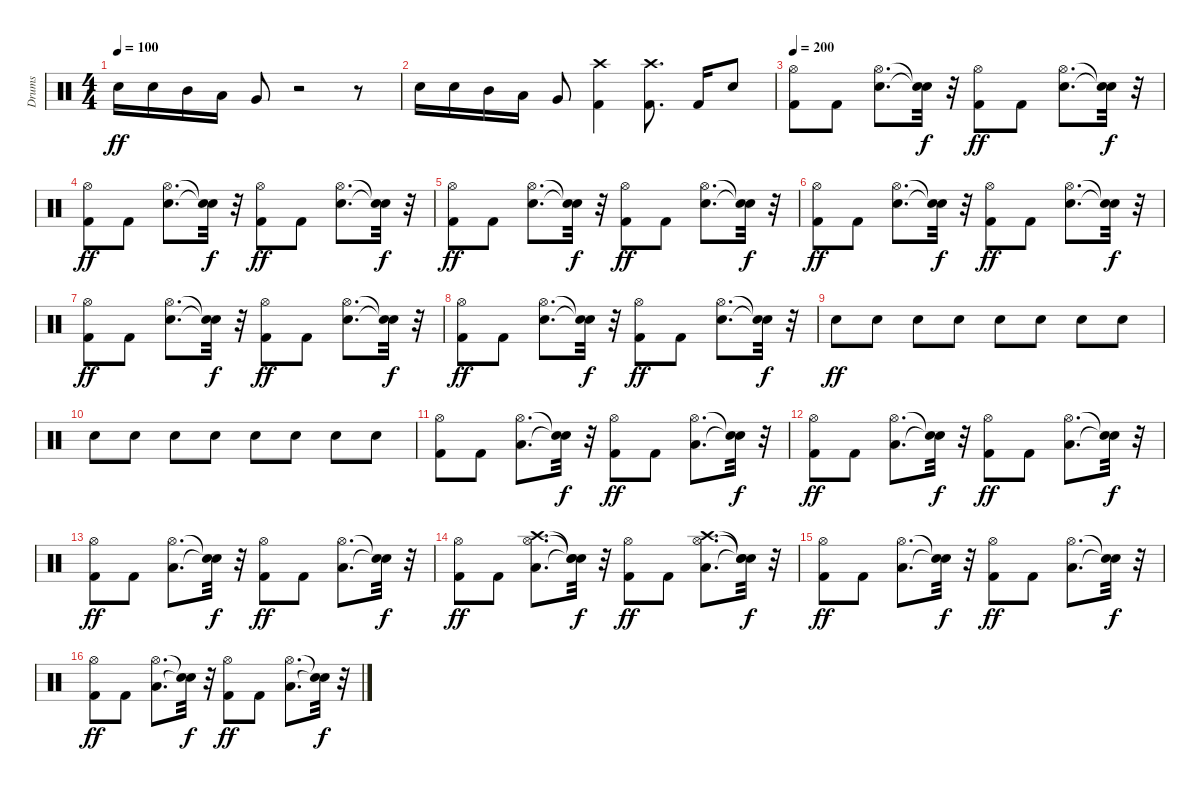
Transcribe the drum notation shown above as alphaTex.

\track ("Drums" "Drums") {instrument percussion}
\staff {score}
\articulation defaults
\ts (4 4)
\tempo 100
\clef neutral
\ks c "Snare (hit) 2".16{dy ff} "Snare (hit) 2".16 "Mid Tom (hit)".16 "Low Tom (hit)".16 "Very Low Tom (hit)".8
r.2 r.8 |
"Snare (hit) 2".16 "Snare (hit) 2".16 "Mid Tom (hit)".16 "Low Tom (hit)".16 "Very Low Tom (hit)".8 ("Kick (hit) 2" "Crash high (hit)").4 ("Kick (hit) 2" "Crash high (hit)").8{d} "Kick (hit) 2".16 "Snare (hit) 2".8 |
\tempo 200
("Kick (hit) 2" "Hi-Hat (open)").8 "Kick (hit) 2".8 ("Snare (hit) 2" "Hi-Hat (open)").8{d} ("Snare (hit)"{t} "Snare (hit)"{t}).32{dy f} r.32 ("Kick (hit) 2" "Hi-Hat (open)").8{dy ff} "Kick (hit) 2".8 ("Snare (hit) 2" "Hi-Hat (open)").8{d} ("Snare (hit)"{t} "Snare (hit)"{t}).32{dy f} r.32 |
("Kick (hit) 2" "Hi-Hat (open)").8{dy ff} "Kick (hit) 2".8 ("Snare (hit) 2" "Hi-Hat (open)").8{d} ("Snare (hit)"{t} "Snare (hit)"{t}).32{dy f} r.32 ("Kick (hit) 2" "Hi-Hat (open)").8{dy ff} "Kick (hit) 2".8 ("Snare (hit) 2" "Hi-Hat (open)").8{d} ("Snare (hit)"{t} "Snare (hit)"{t}).32{dy f} r.32 |
("Kick (hit) 2" "Hi-Hat (open)").8{dy ff} "Kick (hit) 2".8 ("Snare (hit) 2" "Hi-Hat (open)").8{d} ("Snare (hit)"{t} "Snare (hit)"{t}).32{dy f} r.32 ("Kick (hit) 2" "Hi-Hat (open)").8{dy ff} "Kick (hit) 2".8 ("Snare (hit) 2" "Hi-Hat (open)").8{d} ("Snare (hit)"{t} "Snare (hit)"{t}).32{dy f} r.32 |
("Kick (hit) 2" "Hi-Hat (open)").8{dy ff} "Kick (hit) 2".8 ("Snare (hit) 2" "Hi-Hat (open)").8{d} ("Snare (hit)"{t} "Snare (hit)"{t}).32{dy f} r.32 ("Kick (hit) 2" "Hi-Hat (open)").8{dy ff} "Kick (hit) 2".8 ("Snare (hit) 2" "Hi-Hat (open)").8{d} ("Snare (hit)"{t} "Snare (hit)"{t}).32{dy f} r.32 |
("Kick (hit) 2" "Hi-Hat (open)").8{dy ff} "Kick (hit) 2".8 ("Snare (hit) 2" "Hi-Hat (open)").8{d} ("Snare (hit)"{t} "Snare (hit)"{t}).32{dy f} r.32 ("Kick (hit) 2" "Hi-Hat (open)").8{dy ff} "Kick (hit) 2".8 ("Snare (hit) 2" "Hi-Hat (open)").8{d} ("Snare (hit)"{t} "Snare (hit)"{t}).32{dy f} r.32 |
("Kick (hit) 2" "Hi-Hat (open)").8{dy ff} "Kick (hit) 2".8 ("Snare (hit) 2" "Hi-Hat (open)").8{d} ("Snare (hit)"{t} "Snare (hit)"{t}).32{dy f} r.32 ("Kick (hit) 2" "Hi-Hat (open)").8{dy ff} "Kick (hit) 2".8 ("Snare (hit) 2" "Hi-Hat (open)").8{d} ("Snare (hit)"{t} "Snare (hit)"{t}).32{dy f} r.32 |
"Snare (hit) 2".8{dy ff} "Snare (hit) 2".8 "Snare (hit) 2".8 "Snare (hit) 2".8 "Snare (hit) 2".8 "Snare (hit) 2".8 "Snare (hit) 2".8 "Snare (hit) 2".8 |
"Snare (hit) 2".8 "Snare (hit) 2".8 "Snare (hit) 2".8 "Snare (hit) 2".8 "Snare (hit) 2".8 "Snare (hit) 2".8 "Snare (hit) 2".8 "Snare (hit) 2".8 |
("Kick (hit) 2" "Hi-Hat (open)").8 "Kick (hit) 2".8 ("Low Floor Tom (hit)" "Hi-Hat (open)").8{d} ("Snare (hit)"{t} "Snare (hit)"{t}).32{dy f} r.32 ("Kick (hit) 2" "Hi-Hat (open)").8{dy ff} "Kick (hit) 2".8 ("Low Floor Tom (hit)" "Hi-Hat (open)").8{d} ("Snare (hit)"{t} "Snare (hit)"{t}).32{dy f} r.32 |
("Kick (hit) 2" "Hi-Hat (open)").8{dy ff} "Kick (hit) 2".8 ("Low Floor Tom (hit)" "Hi-Hat (open)").8{d} ("Snare (hit)"{t} "Snare (hit)"{t}).32{dy f} r.32 ("Kick (hit) 2" "Hi-Hat (open)").8{dy ff} "Kick (hit) 2".8 ("Low Floor Tom (hit)" "Hi-Hat (open)").8{d} ("Snare (hit)"{t} "Snare (hit)"{t}).32{dy f} r.32 |
("Kick (hit) 2" "Hi-Hat (open)").8{dy ff} "Kick (hit) 2".8 ("Low Floor Tom (hit)" "Hi-Hat (open)").8{d} ("Snare (hit)"{t} "Snare (hit)"{t}).32{dy f} r.32 ("Kick (hit) 2" "Hi-Hat (open)").8{dy ff} "Kick (hit) 2".8 ("Low Floor Tom (hit)" "Hi-Hat (open)").8{d} ("Snare (hit)"{t} "Snare (hit)"{t}).32{dy f} r.32 |
("Kick (hit) 2" "Hi-Hat (open)").8{dy ff} "Kick (hit) 2".8 ("Low Floor Tom (hit)" "Hi-Hat (open)" "Crash high (hit)").8{d} ("Snare (hit)"{t} "Snare (hit)"{t} "Snare (hit)"{t}).32{dy f} r.32 ("Kick (hit) 2" "Hi-Hat (open)").8{dy ff} "Kick (hit) 2".8 ("Low Floor Tom (hit)" "Hi-Hat (open)" "Crash high (hit)").8{d} ("Snare (hit)"{t} "Snare (hit)"{t} "Snare (hit)"{t}).32{dy f} r.32 |
("Kick (hit) 2" "Hi-Hat (open)").8{dy ff} "Kick (hit) 2".8 ("Low Floor Tom (hit)" "Hi-Hat (open)").8{d} ("Snare (hit)"{t} "Snare (hit)"{t}).32{dy f} r.32 ("Kick (hit) 2" "Hi-Hat (open)").8{dy ff} "Kick (hit) 2".8 ("Low Floor Tom (hit)" "Hi-Hat (open)").8{d} ("Snare (hit)"{t} "Snare (hit)"{t}).32{dy f} r.32 |
("Kick (hit) 2" "Hi-Hat (open)").8{dy ff} "Kick (hit) 2".8 ("Low Floor Tom (hit)" "Hi-Hat (open)").8{d} ("Snare (hit)"{t} "Snare (hit)"{t}).32{dy f} r.32 ("Kick (hit) 2" "Hi-Hat (open)").8{dy ff} "Kick (hit) 2".8 ("Low Floor Tom (hit)" "Hi-Hat (open)").8{d} ("Snare (hit)"{t} "Snare (hit)"{t}).32{dy f} r.32
